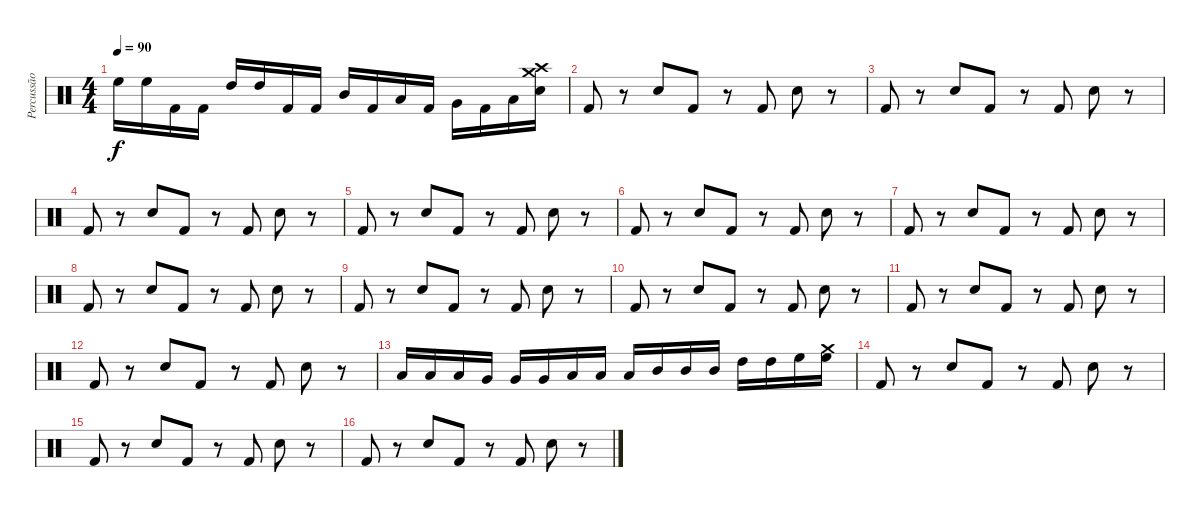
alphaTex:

\track ("Percussão" "Percussão") {instrument percussion}
\staff {score}
\articulation defaults
\ts (4 4)
\tempo 90
\clef neutral
\ks c "High Floor Tom (hit)".16{dy f} "High Floor Tom (hit)".16 "Kick (hit) 2".16 "Kick (hit) 2".16 "High Tom (hit)".16 "High Tom (hit)".16 "Kick (hit) 2".16 "Kick (hit) 2".16 "Mid Tom (hit)".16 "Kick (hit) 2".16 "Low Tom (hit)".16 "Kick (hit) 2".16 "Very Low Tom (hit)".16 "Kick (hit) 2".16 "Low Floor Tom (hit)".16
("Crash high (hit)" "Crash medium (hit)" "Electric Snare (hit)").16 |
"Kick (hit) 2".8 r.8 "Electric Snare (hit)".8 "Kick (hit) 2".8 r.8 "Kick (hit) 2".8 "Electric Snare (hit)".8 r.8 |
"Kick (hit) 2".8 r.8 "Electric Snare (hit)".8 "Kick (hit) 2".8 r.8 "Kick (hit) 2".8 "Electric Snare (hit)".8 r.8 |
"Kick (hit) 2".8 r.8 "Electric Snare (hit)".8 "Kick (hit) 2".8 r.8 "Kick (hit) 2".8 "Electric Snare (hit)".8 r.8 |
"Kick (hit) 2".8 r.8 "Electric Snare (hit)".8 "Kick (hit) 2".8 r.8 "Kick (hit) 2".8 "Electric Snare (hit)".8 r.8 |
"Kick (hit) 2".8 r.8 "Electric Snare (hit)".8 "Kick (hit) 2".8 r.8 "Kick (hit) 2".8 "Electric Snare (hit)".8 r.8 |
"Kick (hit) 2".8 r.8 "Electric Snare (hit)".8 "Kick (hit) 2".8 r.8 "Kick (hit) 2".8 "Electric Snare (hit)".8 r.8 |
"Kick (hit) 2".8 r.8 "Electric Snare (hit)".8 "Kick (hit) 2".8 r.8 "Kick (hit) 2".8 "Electric Snare (hit)".8 r.8 |
"Kick (hit) 2".8 r.8 "Electric Snare (hit)".8 "Kick (hit) 2".8 r.8 "Kick (hit) 2".8 "Electric Snare (hit)".8 r.8 |
"Kick (hit) 2".8 r.8 "Electric Snare (hit)".8 "Kick (hit) 2".8 r.8 "Kick (hit) 2".8 "Electric Snare (hit)".8 r.8 |
"Kick (hit) 2".8 r.8 "Electric Snare (hit)".8 "Kick (hit) 2".8 r.8 "Kick (hit) 2".8 "Electric Snare (hit)".8 r.8 |
"Kick (hit) 2".8 r.8 "Electric Snare (hit)".8 "Kick (hit) 2".8 r.8 "Kick (hit) 2".8 "Electric Snare (hit)".8 r.8 |
"Low Floor Tom (hit)".16 "Low Floor Tom (hit)".16 "Low Floor Tom (hit)".16 "Very Low Tom (hit)".16 "Very Low Tom (hit)".16 "Very Low Tom (hit)".16 "Low Tom (hit)".16 "Low Tom (hit)".16 "Low Tom (hit)".16 "Mid Tom (hit)".16 "Mid Tom (hit)".16 "Mid Tom (hit)".16 "High Tom (hit)".16 "High Tom (hit)".16 "High Floor Tom (hit)".16 ("Crash medium (hit)" "High Floor Tom (hit)").16 |
"Kick (hit) 2".8 r.8 "Electric Snare (hit)".8 "Kick (hit) 2".8 r.8 "Kick (hit) 2".8 "Electric Snare (hit)".8 r.8 |
"Kick (hit) 2".8 r.8 "Electric Snare (hit)".8 "Kick (hit) 2".8 r.8 "Kick (hit) 2".8 "Electric Snare (hit)".8 r.8 |
"Kick (hit) 2".8 r.8 "Electric Snare (hit)".8 "Kick (hit) 2".8 r.8 "Kick (hit) 2".8 "Electric Snare (hit)".8 r.8
